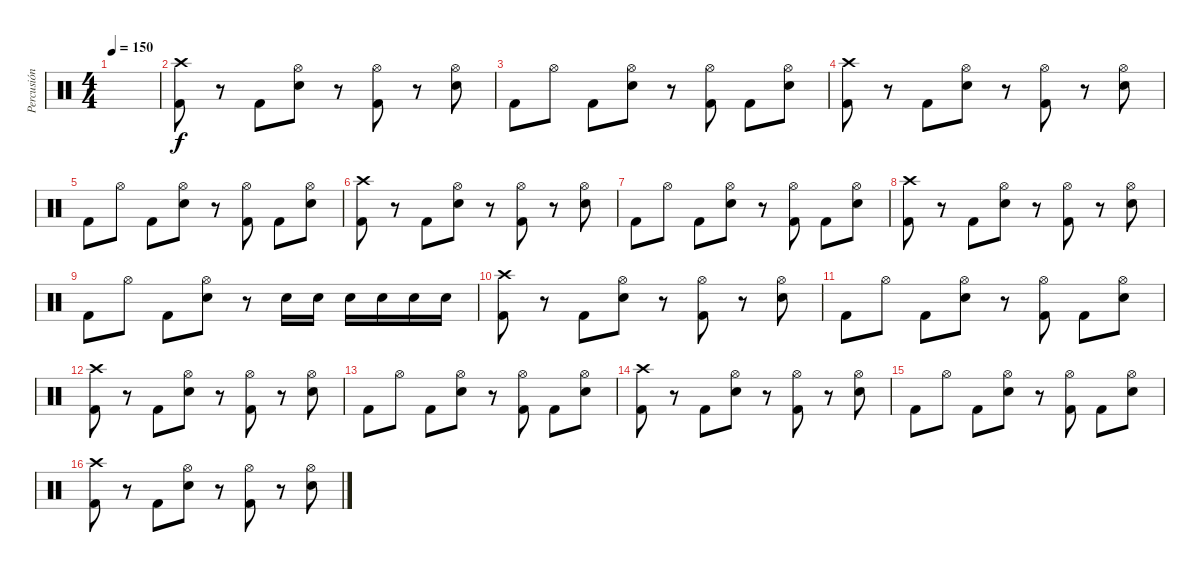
\track ("Percusión" "Percusión") {instrument percussion}
\staff {score}
\articulation defaults
\ts (4 4)
\tempo 150
\clef neutral
\ks c
|
("Crash high (hit)" "Kick (hit) 2").8 r.8 "Kick (hit) 2".8 ("Hi-Hat (open)" "Electric Snare (hit)").8 r.8 ("Hi-Hat (open)" "Kick (hit) 2").8 r.8 ("Hi-Hat (open)" "Electric Snare (hit)").8 |
"Kick (hit) 2".8 "Hi-Hat (open)".8 "Kick (hit) 2".8 ("Hi-Hat (open)" "Electric Snare (hit)").8 r.8 ("Hi-Hat (open)" "Kick (hit) 2").8 "Kick (hit) 2".8 ("Hi-Hat (open)" "Electric Snare (hit)").8 |
("Crash high (hit)" "Kick (hit) 2").8 r.8 "Kick (hit) 2".8 ("Hi-Hat (open)" "Electric Snare (hit)").8 r.8 ("Hi-Hat (open)" "Kick (hit) 2").8 r.8 ("Hi-Hat (open)" "Electric Snare (hit)").8 |
"Kick (hit) 2".8 "Hi-Hat (open)".8 "Kick (hit) 2".8 ("Hi-Hat (open)" "Electric Snare (hit)").8 r.8 ("Hi-Hat (open)" "Kick (hit) 2").8 "Kick (hit) 2".8 ("Hi-Hat (open)" "Electric Snare (hit)").8 |
("Crash high (hit)" "Kick (hit) 2").8 r.8 "Kick (hit) 2".8 ("Hi-Hat (open)" "Electric Snare (hit)").8 r.8 ("Hi-Hat (open)" "Kick (hit) 2").8 r.8 ("Hi-Hat (open)" "Electric Snare (hit)").8 |
"Kick (hit) 2".8 "Hi-Hat (open)".8 "Kick (hit) 2".8 ("Hi-Hat (open)" "Electric Snare (hit)").8 r.8 ("Hi-Hat (open)" "Kick (hit) 2").8 "Kick (hit) 2".8 ("Hi-Hat (open)" "Electric Snare (hit)").8 |
("Crash high (hit)" "Kick (hit) 2").8 r.8 "Kick (hit) 2".8 ("Hi-Hat (open)" "Electric Snare (hit)").8 r.8 ("Hi-Hat (open)" "Kick (hit) 2").8 r.8 ("Hi-Hat (open)" "Electric Snare (hit)").8 |
"Kick (hit) 2".8 "Hi-Hat (open)".8 "Kick (hit) 2".8 ("Hi-Hat (open)" "Electric Snare (hit)").8 r.8 "Electric Snare (hit)".16 "Electric Snare (hit)".16 "Electric Snare (hit)".16 "Electric Snare (hit)".16 "Electric Snare (hit)".16 "Electric Snare (hit)".16 |
("Crash high (hit)" "Kick (hit) 2").8 r.8 "Kick (hit) 2".8 ("Hi-Hat (open)" "Electric Snare (hit)").8 r.8 ("Hi-Hat (open)" "Kick (hit) 2").8 r.8 ("Hi-Hat (open)" "Electric Snare (hit)").8 |
"Kick (hit) 2".8 "Hi-Hat (open)".8 "Kick (hit) 2".8 ("Hi-Hat (open)" "Electric Snare (hit)").8 r.8 ("Hi-Hat (open)" "Kick (hit) 2").8 "Kick (hit) 2".8 ("Hi-Hat (open)" "Electric Snare (hit)").8 |
("Crash high (hit)" "Kick (hit) 2").8 r.8 "Kick (hit) 2".8 ("Hi-Hat (open)" "Electric Snare (hit)").8 r.8 ("Hi-Hat (open)" "Kick (hit) 2").8 r.8 ("Hi-Hat (open)" "Electric Snare (hit)").8 |
"Kick (hit) 2".8 "Hi-Hat (open)".8 "Kick (hit) 2".8 ("Hi-Hat (open)" "Electric Snare (hit)").8 r.8 ("Hi-Hat (open)" "Kick (hit) 2").8 "Kick (hit) 2".8 ("Hi-Hat (open)" "Electric Snare (hit)").8 |
("Crash high (hit)" "Kick (hit) 2").8 r.8 "Kick (hit) 2".8 ("Hi-Hat (open)" "Electric Snare (hit)").8 r.8 ("Hi-Hat (open)" "Kick (hit) 2").8 r.8 ("Hi-Hat (open)" "Electric Snare (hit)").8 |
"Kick (hit) 2".8 "Hi-Hat (open)".8 "Kick (hit) 2".8 ("Hi-Hat (open)" "Electric Snare (hit)").8 r.8 ("Hi-Hat (open)" "Kick (hit) 2").8 "Kick (hit) 2".8 ("Hi-Hat (open)" "Electric Snare (hit)").8 |
("Crash high (hit)" "Kick (hit) 2").8 r.8 "Kick (hit) 2".8 ("Hi-Hat (open)" "Electric Snare (hit)").8 r.8 ("Hi-Hat (open)" "Kick (hit) 2").8 r.8 ("Hi-Hat (open)" "Electric Snare (hit)").8
